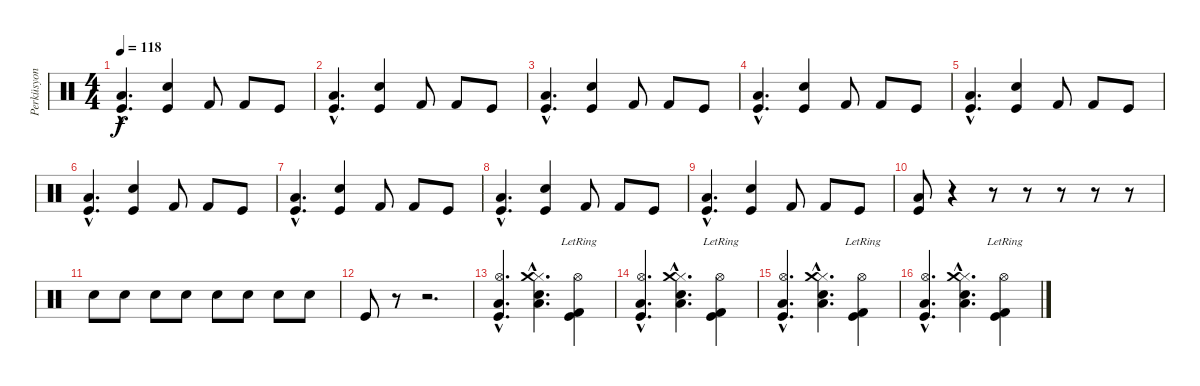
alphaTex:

\track ("Perküsyon" "Perküsyon") {instrument percussion}
\staff {score}
\articulation defaults
\ts (4 4)
\tempo 118
\clef neutral
\ks c
("Low Floor Tom (hit)"{hac} "Kick (hit)"{hac}).4{d dy f} ("Electric Snare (hit)" "Kick (hit)").4 "Kick (hit) 2".8 "Kick (hit) 2".8 "Kick (hit)".8 |
("Low Floor Tom (hit)"{hac} "Kick (hit)"{hac}).4{d} ("Electric Snare (hit)" "Kick (hit)").4 "Kick (hit) 2".8 "Kick (hit) 2".8 "Kick (hit)".8 |
("Low Floor Tom (hit)"{hac} "Kick (hit)"{hac}).4{d} ("Electric Snare (hit)" "Kick (hit)").4 "Kick (hit) 2".8 "Kick (hit) 2".8 "Kick (hit)".8 |
("Low Floor Tom (hit)"{hac} "Kick (hit)"{hac}).4{d} ("Electric Snare (hit)" "Kick (hit)").4 "Kick (hit) 2".8 "Kick (hit) 2".8 "Kick (hit)".8 |
("Low Floor Tom (hit)"{hac} "Kick (hit)"{hac}).4{d} ("Electric Snare (hit)" "Kick (hit)").4 "Kick (hit) 2".8 "Kick (hit) 2".8 "Kick (hit)".8 |
("Low Floor Tom (hit)"{hac} "Kick (hit)"{hac}).4{d} ("Electric Snare (hit)" "Kick (hit)").4 "Kick (hit) 2".8 "Kick (hit) 2".8 "Kick (hit)".8 |
("Low Floor Tom (hit)"{hac} "Kick (hit)"{hac}).4{d} ("Electric Snare (hit)" "Kick (hit)").4 "Kick (hit) 2".8 "Kick (hit) 2".8 "Kick (hit)".8 |
("Low Floor Tom (hit)"{hac} "Kick (hit)"{hac}).4{d} ("Electric Snare (hit)" "Kick (hit)").4 "Kick (hit) 2".8 "Kick (hit) 2".8 "Kick (hit)".8 |
("Low Floor Tom (hit)"{hac} "Kick (hit)"{hac}).4{d} ("Electric Snare (hit)" "Kick (hit)").4 "Kick (hit) 2".8 "Kick (hit) 2".8 "Kick (hit)".8 |
("Low Floor Tom (hit)" "Kick (hit)").8 r.4 r.8 r.8 r.8 r.8 r.8 |
"Electric Snare (hit)".8 "Electric Snare (hit)".8 "Electric Snare (hit)".8 "Electric Snare (hit)".8 "Electric Snare (hit)".8 "Electric Snare (hit)".8 "Electric Snare (hit)".8 "Electric Snare (hit)".8 |
"Kick (hit)".8 r.8 r.2{d} |
("Hi-Hat (open)"{hac} "Low Tom (hit)"{hac} "Kick (hit)"{hac}).4{d} ("Low Floor Tom (hit)"{hac} "Hi-Hat (closed)"{hac} "Snare (hit)"{hac} "Crash medium (hit)"{hac}).4{d} ("Hi-Hat (open)"{lr} "Kick (hit) 2" "Kick (hit)").4 |
("Hi-Hat (open)"{hac} "Low Tom (hit)"{hac} "Kick (hit)"{hac}).4{d} ("Low Floor Tom (hit)"{hac} "Hi-Hat (closed)"{hac} "Snare (hit)"{hac} "Crash medium (hit)"{hac}).4{d} ("Hi-Hat (open)"{lr} "Kick (hit) 2" "Kick (hit)").4 |
("Hi-Hat (open)"{hac} "Low Tom (hit)"{hac} "Kick (hit)"{hac}).4{d} ("Low Floor Tom (hit)"{hac} "Hi-Hat (closed)"{hac} "Snare (hit)"{hac} "Crash medium (hit)"{hac}).4{d} ("Hi-Hat (open)"{lr} "Kick (hit) 2" "Kick (hit)").4 |
("Hi-Hat (open)"{hac} "Low Tom (hit)"{hac} "Kick (hit)"{hac}).4{d} ("Low Floor Tom (hit)"{hac} "Hi-Hat (closed)"{hac} "Snare (hit)"{hac} "Crash medium (hit)"{hac}).4{d} ("Hi-Hat (open)"{lr} "Kick (hit) 2" "Kick (hit)").4
